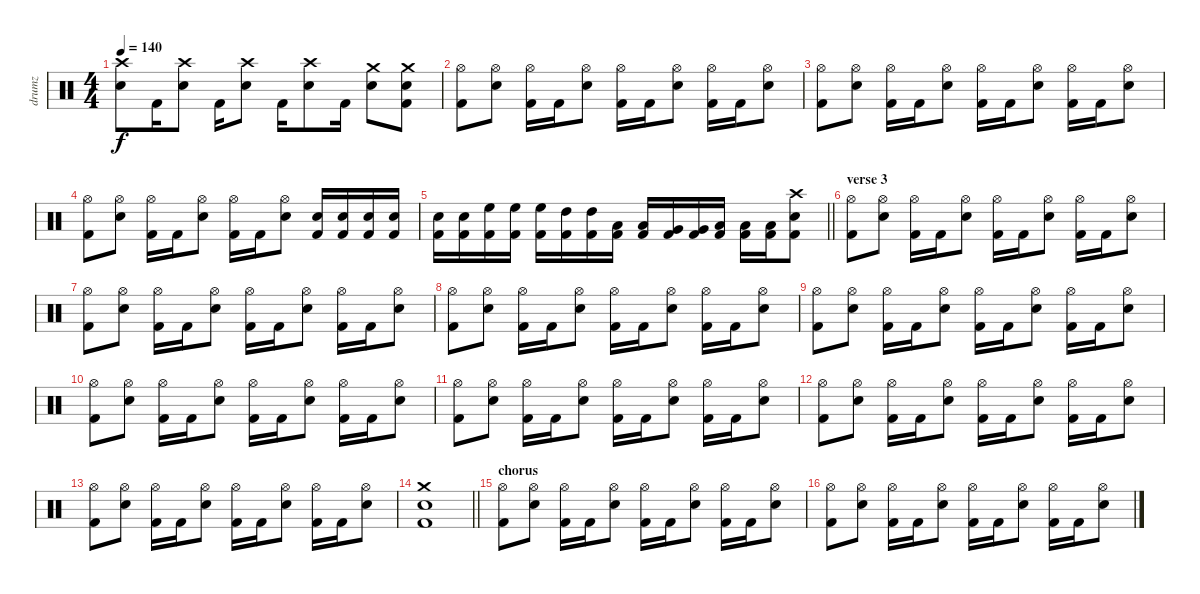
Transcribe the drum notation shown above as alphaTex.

\track ("drumz" "drumz") {instrument percussion}
\staff {score}
\articulation defaults
\ts (4 4)
\tempo 140
\clef neutral
\ks c
("Crash high (hit)" "Electric Snare (hit)").8{dy f} "Kick (hit) 2".16 ("Crash high (hit)" "Electric Snare (hit)").8 "Kick (hit) 2".16 ("Crash high (hit)" "Electric Snare (hit)").8 "Kick (hit) 2".16 ("Crash high (hit)" "Electric Snare (hit)").8 "Kick (hit) 2".16 ("Crash medium (hit)" "Electric Snare (hit)").8 ("Crash medium (hit)" "Electric Snare (hit)" "Kick (hit) 2").8 |
("Hi-Hat (open)" "Kick (hit) 2").8 ("Hi-Hat (open)" "Electric Snare (hit)").8 ("Hi-Hat (open)" "Kick (hit) 2").16 "Kick (hit) 2".16 ("Hi-Hat (open)" "Electric Snare (hit)").8 ("Hi-Hat (open)" "Kick (hit) 2").16 "Kick (hit) 2".16 ("Hi-Hat (open)" "Electric Snare (hit)").8 ("Hi-Hat (open)" "Kick (hit) 2").16 "Kick (hit) 2".16 ("Hi-Hat (open)" "Electric Snare (hit)").8 |
("Hi-Hat (open)" "Kick (hit) 2").8 ("Hi-Hat (open)" "Electric Snare (hit)").8 ("Hi-Hat (open)" "Kick (hit) 2").16 "Kick (hit) 2".16 ("Hi-Hat (open)" "Electric Snare (hit)").8 ("Hi-Hat (open)" "Kick (hit) 2").16 "Kick (hit) 2".16 ("Hi-Hat (open)" "Electric Snare (hit)").8 ("Hi-Hat (open)" "Kick (hit) 2").16 "Kick (hit) 2".16 ("Hi-Hat (open)" "Electric Snare (hit)").8 |
("Hi-Hat (open)" "Kick (hit) 2").8 ("Hi-Hat (open)" "Electric Snare (hit)").8 ("Hi-Hat (open)" "Kick (hit) 2").16 "Kick (hit) 2".16 ("Hi-Hat (open)" "Electric Snare (hit)").8 ("Hi-Hat (open)" "Kick (hit) 2").16 "Kick (hit) 2".16 ("Hi-Hat (open)" "Electric Snare (hit)").8 ("Electric Snare (hit)" "Kick (hit) 2").16 ("Electric Snare (hit)" "Kick (hit) 2").16 ("Electric Snare (hit)" "Kick (hit) 2").16 ("Electric Snare (hit)" "Kick (hit) 2").16 |
\barLineRight lightlight
("Electric Snare (hit)" "Kick (hit) 2").16 ("Electric Snare (hit)" "Kick (hit) 2").16 ("High Floor Tom (hit)" "Kick (hit) 2").16 ("High Floor Tom (hit)" "Kick (hit) 2").16 ("High Floor Tom (hit)" "Kick (hit) 2").16 ("High Tom (hit)" "Kick (hit) 2").16 ("High Tom (hit)" "Kick (hit) 2").16 ("Low Tom (hit)" "Kick (hit) 2").16 ("Low Tom (hit)" "Kick (hit) 2").16 ("Very Low Tom (hit)" "Kick (hit) 2").16 ("Very Low Tom (hit)" "Kick (hit) 2").16 ("Low Floor Tom (hit)" "Kick (hit) 2").16 ("Low Floor Tom (hit)" "Kick (hit) 2").16 ("Low Floor Tom (hit)" "Kick (hit) 2").16 ("Crash high (hit)" "Electric Snare (hit)" "Kick (hit) 2").8 |
\section ("" "verse 3")
("Hi-Hat (open)" "Kick (hit) 2").8 ("Hi-Hat (open)" "Electric Snare (hit)").8 ("Hi-Hat (open)" "Kick (hit) 2").16 "Kick (hit) 2".16 ("Hi-Hat (open)" "Electric Snare (hit)").8 ("Hi-Hat (open)" "Kick (hit) 2").16 "Kick (hit) 2".16 ("Hi-Hat (open)" "Electric Snare (hit)").8 ("Hi-Hat (open)" "Kick (hit) 2").16 "Kick (hit) 2".16 ("Hi-Hat (open)" "Electric Snare (hit)").8 |
("Hi-Hat (open)" "Kick (hit) 2").8 ("Hi-Hat (open)" "Electric Snare (hit)").8 ("Hi-Hat (open)" "Kick (hit) 2").16 "Kick (hit) 2".16 ("Hi-Hat (open)" "Electric Snare (hit)").8 ("Hi-Hat (open)" "Kick (hit) 2").16 "Kick (hit) 2".16 ("Hi-Hat (open)" "Electric Snare (hit)").8 ("Hi-Hat (open)" "Kick (hit) 2").16 "Kick (hit) 2".16 ("Hi-Hat (open)" "Electric Snare (hit)").8 |
("Hi-Hat (open)" "Kick (hit) 2").8 ("Hi-Hat (open)" "Electric Snare (hit)").8 ("Hi-Hat (open)" "Kick (hit) 2").16 "Kick (hit) 2".16 ("Hi-Hat (open)" "Electric Snare (hit)").8 ("Hi-Hat (open)" "Kick (hit) 2").16 "Kick (hit) 2".16 ("Hi-Hat (open)" "Electric Snare (hit)").8 ("Hi-Hat (open)" "Kick (hit) 2").16 "Kick (hit) 2".16 ("Hi-Hat (open)" "Electric Snare (hit)").8 |
("Hi-Hat (open)" "Kick (hit) 2").8 ("Hi-Hat (open)" "Electric Snare (hit)").8 ("Hi-Hat (open)" "Kick (hit) 2").16 "Kick (hit) 2".16 ("Hi-Hat (open)" "Electric Snare (hit)").8 ("Hi-Hat (open)" "Kick (hit) 2").16 "Kick (hit) 2".16 ("Hi-Hat (open)" "Electric Snare (hit)").8 ("Hi-Hat (open)" "Kick (hit) 2").16 "Kick (hit) 2".16 ("Hi-Hat (open)" "Electric Snare (hit)").8 |
("Hi-Hat (open)" "Kick (hit) 2").8 ("Hi-Hat (open)" "Electric Snare (hit)").8 ("Hi-Hat (open)" "Kick (hit) 2").16 "Kick (hit) 2".16 ("Hi-Hat (open)" "Electric Snare (hit)").8 ("Hi-Hat (open)" "Kick (hit) 2").16 "Kick (hit) 2".16 ("Hi-Hat (open)" "Electric Snare (hit)").8 ("Hi-Hat (open)" "Kick (hit) 2").16 "Kick (hit) 2".16 ("Hi-Hat (open)" "Electric Snare (hit)").8 |
("Hi-Hat (open)" "Kick (hit) 2").8 ("Hi-Hat (open)" "Electric Snare (hit)").8 ("Hi-Hat (open)" "Kick (hit) 2").16 "Kick (hit) 2".16 ("Hi-Hat (open)" "Electric Snare (hit)").8 ("Hi-Hat (open)" "Kick (hit) 2").16 "Kick (hit) 2".16 ("Hi-Hat (open)" "Electric Snare (hit)").8 ("Hi-Hat (open)" "Kick (hit) 2").16 "Kick (hit) 2".16 ("Hi-Hat (open)" "Electric Snare (hit)").8 |
("Hi-Hat (open)" "Kick (hit) 2").8 ("Hi-Hat (open)" "Electric Snare (hit)").8 ("Hi-Hat (open)" "Kick (hit) 2").16 "Kick (hit) 2".16 ("Hi-Hat (open)" "Electric Snare (hit)").8 ("Hi-Hat (open)" "Kick (hit) 2").16 "Kick (hit) 2".16 ("Hi-Hat (open)" "Electric Snare (hit)").8 ("Hi-Hat (open)" "Kick (hit) 2").16 "Kick (hit) 2".16 ("Hi-Hat (open)" "Electric Snare (hit)").8 |
("Hi-Hat (open)" "Kick (hit) 2").8 ("Hi-Hat (open)" "Electric Snare (hit)").8 ("Hi-Hat (open)" "Kick (hit) 2").16 "Kick (hit) 2".16 ("Hi-Hat (open)" "Electric Snare (hit)").8 ("Hi-Hat (open)" "Kick (hit) 2").16 "Kick (hit) 2".16 ("Hi-Hat (open)" "Electric Snare (hit)").8 ("Hi-Hat (open)" "Kick (hit) 2").16 "Kick (hit) 2".16 ("Hi-Hat (open)" "Electric Snare (hit)").8 |
\barLineRight lightlight
("Crash medium (hit)" "Electric Snare (hit)" "Kick (hit) 2").1 |
\section ("" "chorus")
("Hi-Hat (open)" "Kick (hit) 2").8 ("Hi-Hat (open)" "Electric Snare (hit)").8 ("Hi-Hat (open)" "Kick (hit) 2").16 "Kick (hit) 2".16 ("Hi-Hat (open)" "Electric Snare (hit)").8 ("Hi-Hat (open)" "Kick (hit) 2").16 "Kick (hit) 2".16 ("Hi-Hat (open)" "Electric Snare (hit)").8 ("Hi-Hat (open)" "Kick (hit) 2").16 "Kick (hit) 2".16 ("Hi-Hat (open)" "Electric Snare (hit)").8 |
("Hi-Hat (open)" "Kick (hit) 2").8 ("Hi-Hat (open)" "Electric Snare (hit)").8 ("Hi-Hat (open)" "Kick (hit) 2").16 "Kick (hit) 2".16 ("Hi-Hat (open)" "Electric Snare (hit)").8 ("Hi-Hat (open)" "Kick (hit) 2").16 "Kick (hit) 2".16 ("Hi-Hat (open)" "Electric Snare (hit)").8 ("Hi-Hat (open)" "Kick (hit) 2").16 "Kick (hit) 2".16 ("Hi-Hat (open)" "Electric Snare (hit)").8
